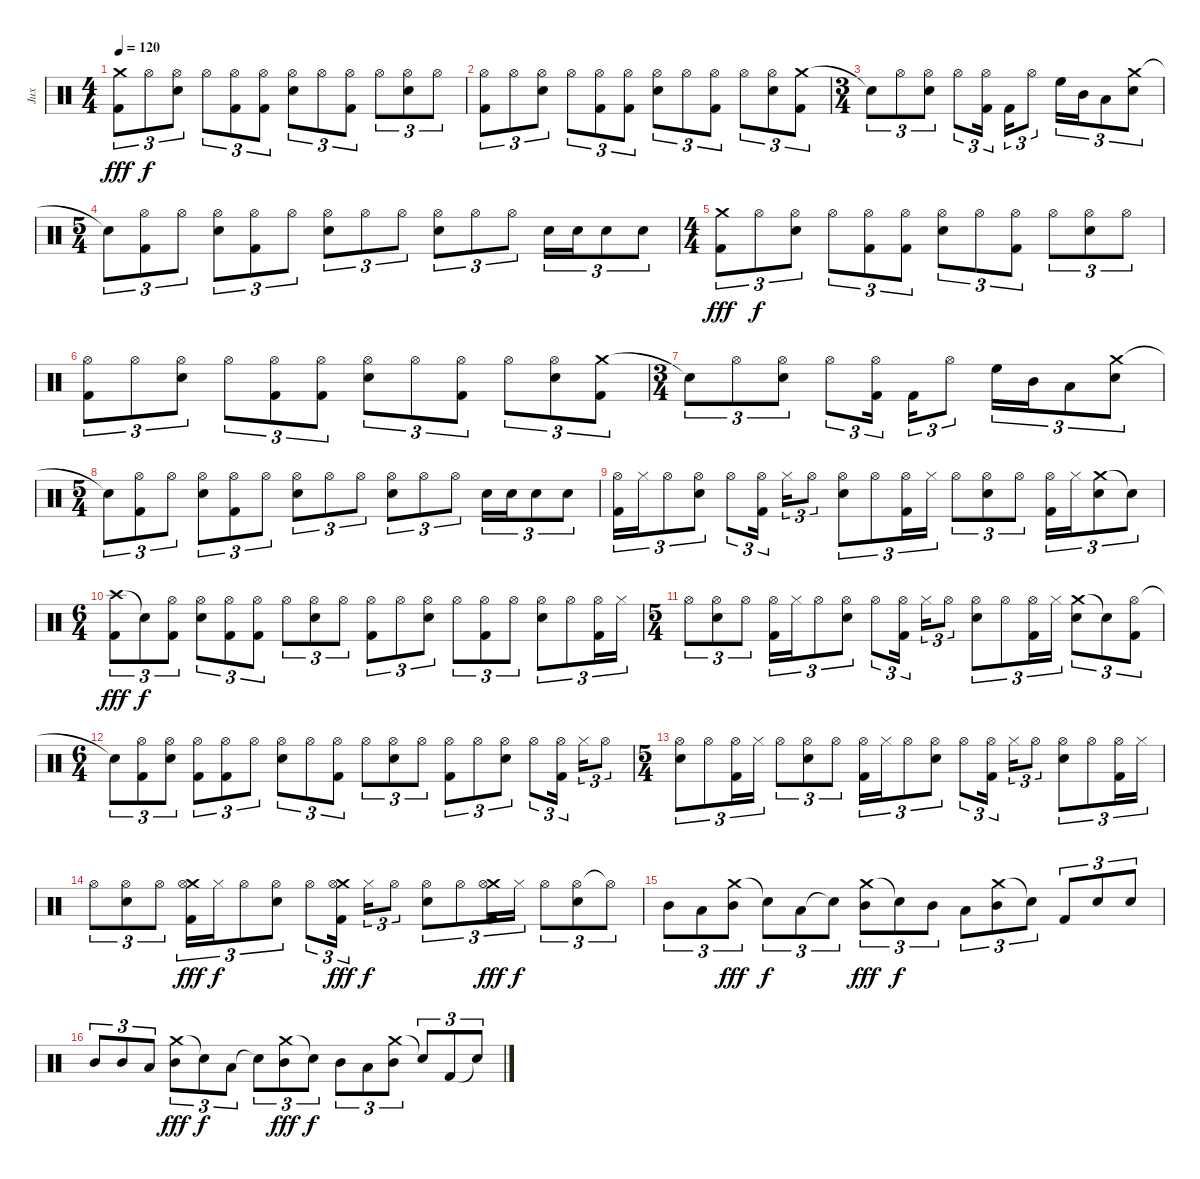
\track ("Jux" "Jux") {instrument percussion}
\staff {score}
\articulation defaults
\ts (4 4)
\tempo 120
\clef neutral
\ks c
("Crash medium (hit)" "Kick (hit) 2").8{tu (3 2) dy fff} "Hi-Hat (open)".8{tu (3 2) dy f} ("Hi-Hat (open)" "Electric Snare (hit)").8{tu (3 2)} "Hi-Hat (open)".8{tu (3 2)} ("Hi-Hat (open)" "Kick (hit) 2").8{tu (3 2)} ("Hi-Hat (open)" "Kick (hit) 2").8{tu (3 2)} ("Hi-Hat (open)" "Electric Snare (hit)").8{tu (3 2)} "Hi-Hat (open)".8{tu (3 2)} ("Hi-Hat (open)" "Kick (hit) 2").8{tu (3 2)} "Hi-Hat (open)".8{tu (3 2)} ("Hi-Hat (open)" "Electric Snare (hit)").8{tu (3 2)} "Hi-Hat (open)".8{tu (3 2)} |
("Hi-Hat (open)" "Kick (hit) 2").8{tu (3 2)} "Hi-Hat (open)".8{tu (3 2)} ("Hi-Hat (open)" "Electric Snare (hit)").8{tu (3 2)} "Hi-Hat (open)".8{tu (3 2)} ("Hi-Hat (open)" "Kick (hit) 2").8{tu (3 2)} ("Hi-Hat (open)" "Kick (hit) 2").8{tu (3 2)} ("Hi-Hat (open)" "Electric Snare (hit)").8{tu (3 2)} "Hi-Hat (open)".8{tu (3 2)} ("Hi-Hat (open)" "Kick (hit) 2").8{tu (3 2)} "Hi-Hat (open)".8{tu (3 2)} ("Hi-Hat (open)" "Electric Snare (hit)").8{tu (3 2)} ("Crash medium (hit)" "Kick (hit) 2").8{tu (3 2)} |
\ts (3 4)
"Snare (hit)"{t}.8{tu (3 2)} "Hi-Hat (open)".8{tu (3 2)} ("Hi-Hat (open)" "Electric Snare (hit)").8{tu (3 2)} "Hi-Hat (open)".8{tu (3 2)} ("Hi-Hat (open)" "Kick (hit) 2").16{tu (3 2)} "Kick (hit) 2".16{tu (3 2)} "Hi-Hat (open)".8{tu (3 2)} "High Floor Tom (hit)".16{tu (3 2)} "Mid Tom (hit)".16{tu (3 2)} "Low Tom (hit)".8{tu (3 2)} ("Crash medium (hit)" "Electric Snare (hit)").8{tu (3 2)} |
\ts (5 4)
"Snare (hit)"{t}.8{tu (3 2)} ("Hi-Hat (open)" "Kick (hit) 2").8{tu (3 2)} "Hi-Hat (open)".8{tu (3 2)} ("Hi-Hat (open)" "Electric Snare (hit)").8{tu (3 2)} ("Hi-Hat (open)" "Kick (hit) 2").8{tu (3 2)} "Hi-Hat (open)".8{tu (3 2)} ("Hi-Hat (open)" "Electric Snare (hit)").8{tu (3 2)} "Hi-Hat (open)".8{tu (3 2)} "Hi-Hat (open)".8{tu (3 2)} ("Hi-Hat (open)" "Electric Snare (hit)").8{tu (3 2)} "Hi-Hat (open)".8{tu (3 2)} "Hi-Hat (open)".8{tu (3 2)} "Electric Snare (hit)".16{tu (3 2)} "Electric Snare (hit)".16{tu (3 2)} "Electric Snare (hit)".8{tu (3 2)} "Electric Snare (hit)".8{tu (3 2)} |
\ts (4 4)
("Crash medium (hit)" "Kick (hit) 2").8{tu (3 2) dy fff} "Hi-Hat (open)".8{tu (3 2) dy f} ("Hi-Hat (open)" "Electric Snare (hit)").8{tu (3 2)} "Hi-Hat (open)".8{tu (3 2)} ("Hi-Hat (open)" "Kick (hit) 2").8{tu (3 2)} ("Hi-Hat (open)" "Kick (hit) 2").8{tu (3 2)} ("Hi-Hat (open)" "Electric Snare (hit)").8{tu (3 2)} "Hi-Hat (open)".8{tu (3 2)} ("Hi-Hat (open)" "Kick (hit) 2").8{tu (3 2)} "Hi-Hat (open)".8{tu (3 2)} ("Hi-Hat (open)" "Electric Snare (hit)").8{tu (3 2)} "Hi-Hat (open)".8{tu (3 2)} |
("Hi-Hat (open)" "Kick (hit) 2").8{tu (3 2)} "Hi-Hat (open)".8{tu (3 2)} ("Hi-Hat (open)" "Electric Snare (hit)").8{tu (3 2)} "Hi-Hat (open)".8{tu (3 2)} ("Hi-Hat (open)" "Kick (hit) 2").8{tu (3 2)} ("Hi-Hat (open)" "Kick (hit) 2").8{tu (3 2)} ("Hi-Hat (open)" "Electric Snare (hit)").8{tu (3 2)} "Hi-Hat (open)".8{tu (3 2)} ("Hi-Hat (open)" "Kick (hit) 2").8{tu (3 2)} "Hi-Hat (open)".8{tu (3 2)} ("Hi-Hat (open)" "Electric Snare (hit)").8{tu (3 2)} ("Crash medium (hit)" "Kick (hit) 2").8{tu (3 2)} |
\ts (3 4)
"Snare (hit)"{t}.8{tu (3 2)} "Hi-Hat (open)".8{tu (3 2)} ("Hi-Hat (open)" "Electric Snare (hit)").8{tu (3 2)} "Hi-Hat (open)".8{tu (3 2)} ("Hi-Hat (open)" "Kick (hit) 2").16{tu (3 2)} "Kick (hit) 2".16{tu (3 2)} "Hi-Hat (open)".8{tu (3 2)} "High Floor Tom (hit)".16{tu (3 2)} "Mid Tom (hit)".16{tu (3 2)} "Low Tom (hit)".8{tu (3 2)} ("Crash medium (hit)" "Electric Snare (hit)").8{tu (3 2)} |
\ts (5 4)
"Snare (hit)"{t}.8{tu (3 2)} ("Hi-Hat (open)" "Kick (hit) 2").8{tu (3 2)} "Hi-Hat (open)".8{tu (3 2)} ("Hi-Hat (open)" "Electric Snare (hit)").8{tu (3 2)} ("Hi-Hat (open)" "Kick (hit) 2").8{tu (3 2)} "Hi-Hat (open)".8{tu (3 2)} ("Hi-Hat (open)" "Electric Snare (hit)").8{tu (3 2)} "Hi-Hat (open)".8{tu (3 2)} "Hi-Hat (open)".8{tu (3 2)} ("Hi-Hat (open)" "Electric Snare (hit)").8{tu (3 2)} "Hi-Hat (open)".8{tu (3 2)} "Hi-Hat (open)".8{tu (3 2)} "Electric Snare (hit)".16{tu (3 2)} "Electric Snare (hit)".16{tu (3 2)} "Electric Snare (hit)".8{tu (3 2)} "Electric Snare (hit)".8{tu (3 2)} |
("Hi-Hat (open)" "Kick (hit) 2").16{tu (3 2)} "Hi-Hat (closed)".16{tu (3 2)} "Hi-Hat (open)".8{tu (3 2)} ("Hi-Hat (open)" "Electric Snare (hit)").8{tu (3 2)} "Hi-Hat (open)".8{tu (3 2)} ("Hi-Hat (open)" "Kick (hit) 2").16{tu (3 2)} "Hi-Hat (closed)".16{tu (3 2)} "Hi-Hat (open)".8{tu (3 2)} ("Hi-Hat (open)" "Electric Snare (hit)").8{tu (3 2)} "Hi-Hat (open)".8{tu (3 2)} ("Hi-Hat (open)" "Kick (hit) 2").16{tu (3 2)} "Hi-Hat (closed)".16{tu (3 2)} "Hi-Hat (open)".8{tu (3 2)} ("Hi-Hat (open)" "Electric Snare (hit)").8{tu (3 2)} "Hi-Hat (open)".8{tu (3 2)} ("Hi-Hat (open)" "Kick (hit) 2").16{tu (3 2)} "Hi-Hat (closed)".16{tu (3 2)} ("Crash medium (hit)" "Electric Snare (hit)").8{tu (3 2)} "Snare (hit)"{t}.8{tu (3 2)} |
\ts (6 4)
("Crash high (hit)" "Kick (hit) 2").8{tu (3 2) dy fff} "Snare (hit)"{t}.8{tu (3 2) dy f} ("Hi-Hat (open)" "Kick (hit) 2").8{tu (3 2)} ("Hi-Hat (open)" "Electric Snare (hit)").8{tu (3 2)} ("Hi-Hat (open)" "Kick (hit) 2").8{tu (3 2)} ("Hi-Hat (open)" "Kick (hit) 2").8{tu (3 2)} "Hi-Hat (open)".8{tu (3 2)} ("Hi-Hat (open)" "Electric Snare (hit)").8{tu (3 2)} "Hi-Hat (open)".8{tu (3 2)} ("Hi-Hat (open)" "Kick (hit) 2").8{tu (3 2)} "Hi-Hat (open)".8{tu (3 2)} ("Hi-Hat (open)" "Electric Snare (hit)").8{tu (3 2)} "Hi-Hat (open)".8{tu (3 2)} ("Hi-Hat (open)" "Kick (hit) 2").8{tu (3 2)} "Hi-Hat (open)".8{tu (3 2)} ("Hi-Hat (open)" "Electric Snare (hit)").8{tu (3 2)} "Hi-Hat (open)".8{tu (3 2)} ("Hi-Hat (open)" "Kick (hit) 2").16{tu (3 2)} "Hi-Hat (closed)".16{tu (3 2)} |
\ts (5 4)
"Hi-Hat (open)".8{tu (3 2)} ("Hi-Hat (open)" "Electric Snare (hit)").8{tu (3 2)} "Hi-Hat (open)".8{tu (3 2)} ("Hi-Hat (open)" "Kick (hit) 2").16{tu (3 2)} "Hi-Hat (closed)".16{tu (3 2)} "Hi-Hat (open)".8{tu (3 2)} ("Hi-Hat (open)" "Electric Snare (hit)").8{tu (3 2)} "Hi-Hat (open)".8{tu (3 2)} ("Hi-Hat (open)" "Kick (hit) 2").16{tu (3 2)} "Hi-Hat (closed)".16{tu (3 2)} "Hi-Hat (open)".8{tu (3 2)} ("Hi-Hat (open)" "Electric Snare (hit)").8{tu (3 2)} "Hi-Hat (open)".8{tu (3 2)} ("Hi-Hat (open)" "Kick (hit) 2").16{tu (3 2)} "Hi-Hat (closed)".16{tu (3 2)} ("Crash medium (hit)" "Electric Snare (hit)").8{tu (3 2)} "Snare (hit)"{t}.8{tu (3 2)} ("Hi-Hat (open)" "Kick (hit) 2").8{tu (3 2)} |
\ts (6 4)
"Snare (hit)"{t}.8{tu (3 2)} ("Hi-Hat (open)" "Kick (hit) 2").8{tu (3 2)} ("Hi-Hat (open)" "Electric Snare (hit)").8{tu (3 2)} ("Hi-Hat (open)" "Kick (hit) 2").8{tu (3 2)} ("Hi-Hat (open)" "Kick (hit) 2").8{tu (3 2)} "Hi-Hat (open)".8{tu (3 2)} ("Hi-Hat (open)" "Electric Snare (hit)").8{tu (3 2)} "Hi-Hat (open)".8{tu (3 2)} ("Hi-Hat (open)" "Kick (hit) 2").8{tu (3 2)} "Hi-Hat (open)".8{tu (3 2)} ("Hi-Hat (open)" "Electric Snare (hit)").8{tu (3 2)} "Hi-Hat (open)".8{tu (3 2)} ("Hi-Hat (open)" "Kick (hit) 2").8{tu (3 2)} "Hi-Hat (open)".8{tu (3 2)} ("Hi-Hat (open)" "Electric Snare (hit)").8{tu (3 2)} "Hi-Hat (open)".8{tu (3 2)} ("Hi-Hat (open)" "Kick (hit) 2").16{tu (3 2)} "Hi-Hat (closed)".16{tu (3 2)} "Hi-Hat (open)".8{tu (3 2)} |
\ts (5 4)
("Hi-Hat (open)" "Electric Snare (hit)").8{tu (3 2)} "Hi-Hat (open)".8{tu (3 2)} ("Hi-Hat (open)" "Kick (hit) 2").16{tu (3 2)} "Hi-Hat (closed)".16{tu (3 2)} "Hi-Hat (open)".8{tu (3 2)} ("Hi-Hat (open)" "Electric Snare (hit)").8{tu (3 2)} "Hi-Hat (open)".8{tu (3 2)} ("Hi-Hat (open)" "Kick (hit) 2").16{tu (3 2)} "Hi-Hat (closed)".16{tu (3 2)} "Hi-Hat (open)".8{tu (3 2)} ("Hi-Hat (open)" "Electric Snare (hit)").8{tu (3 2)} "Hi-Hat (open)".8{tu (3 2)} ("Hi-Hat (open)" "Kick (hit) 2").16{tu (3 2)} "Hi-Hat (closed)".16{tu (3 2)} "Hi-Hat (open)".8{tu (3 2)} ("Hi-Hat (open)" "Electric Snare (hit)").8{tu (3 2)} "Hi-Hat (open)".8{tu (3 2)} ("Hi-Hat (open)" "Kick (hit) 2").16{tu (3 2)} "Hi-Hat (closed)".16{tu (3 2)} |
"Hi-Hat (open)".8{tu (3 2)} ("Hi-Hat (open)" "Electric Snare (hit)").8{tu (3 2)} "Hi-Hat (open)".8{tu (3 2)} ("Crash medium (hit)" "Hi-Hat (open)" "Kick (hit) 2").16{tu (3 2) dy fff} "Hi-Hat (closed)".16{tu (3 2) dy f} "Hi-Hat (open)".8{tu (3 2)} ("Hi-Hat (open)" "Electric Snare (hit)").8{tu (3 2)} "Hi-Hat (open)".8{tu (3 2)} ("Crash medium (hit)" "Hi-Hat (open)" "Kick (hit) 2").16{tu (3 2) dy fff} "Hi-Hat (closed)".16{tu (3 2) dy f} "Hi-Hat (open)".8{tu (3 2)} ("Hi-Hat (open)" "Electric Snare (hit)").8{tu (3 2)} "Hi-Hat (open)".8{tu (3 2)} ("Crash medium (hit)" "Hi-Hat (open)" "Kick (hit) 2").16{tu (3 2) dy fff} "Hi-Hat (closed)".16{tu (3 2) dy f} "Hi-Hat (open)".8{tu (3 2)} ("Hi-Hat (open)" "Electric Snare (hit)").8{tu (3 2)} "Hi-Hat (open)"{t}.8{tu (3 2)} |
"Mid Tom (hit)".8{tu (3 2)} "Low Tom (hit)".8{tu (3 2)} ("Crash medium (hit)" "Mid Tom (hit)").8{tu (3 2) dy fff} "Snare (hit)"{t}.8{tu (3 2) dy f} "Low Tom (hit)".8{tu (3 2)} "Snare (hit)"{t}.8{tu (3 2)} ("Crash medium (hit)" "Mid Tom (hit)").8{tu (3 2) dy fff} "Snare (hit)"{t}.8{tu (3 2) dy f} "Mid Tom (hit)".8{tu (3 2)} "Low Tom (hit)".8{tu (3 2)} ("Crash medium (hit)" "Mid Tom (hit)").8{tu (3 2)} "Snare (hit)"{t}.8{tu (3 2)} "Kick (hit) 2".8{tu (3 2)} "Electric Snare (hit)".8{tu (3 2)} "Electric Snare (hit)".8{tu (3 2)} |
"Mid Tom (hit)".8{tu (3 2)} "Mid Tom (hit)".8{tu (3 2)} "Low Tom (hit)".8{tu (3 2)} ("Crash medium (hit)" "Mid Tom (hit)").8{tu (3 2) dy fff} "Snare (hit)"{t}.8{tu (3 2) dy f} "Low Tom (hit)".8{tu (3 2)} "Snare (hit)"{t}.8{tu (3 2)} ("Crash medium (hit)" "Mid Tom (hit)").8{tu (3 2) dy fff} "Snare (hit)"{t}.8{tu (3 2) dy f} "Mid Tom (hit)".8{tu (3 2)} "Low Tom (hit)".8{tu (3 2)} ("Crash medium (hit)" "Mid Tom (hit)").8{tu (3 2)} "Snare (hit)"{t}.8{tu (3 2)} "Kick (hit) 2".8{tu (3 2)} "Snare (hit)"{t}.8{tu (3 2)}
